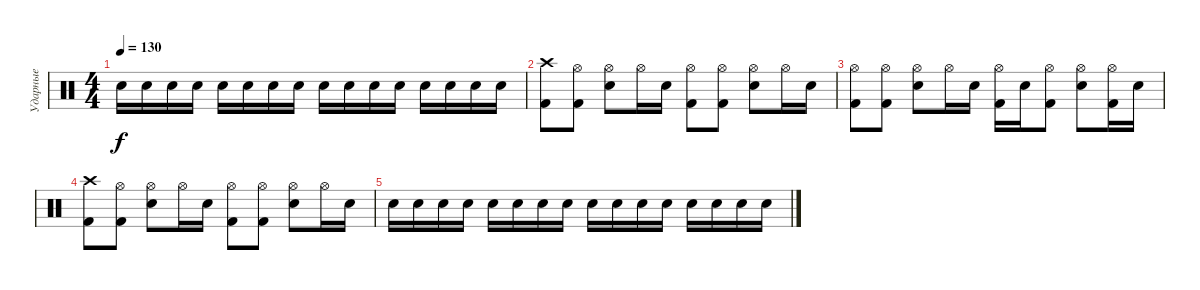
\track ("Ударные" "Ударные") {instrument percussion}
\staff {score}
\articulation defaults
\ts (4 4)
\tempo 130
\clef neutral
\ks c "Snare (hit) 2".16{dy f} "Snare (hit) 2".16 "Snare (hit) 2".16 "Snare (hit) 2".16 "Snare (hit) 2".16 "Snare (hit) 2".16 "Snare (hit) 2".16 "Snare (hit) 2".16 "Snare (hit) 2".16 "Snare (hit) 2".16 "Snare (hit) 2".16 "Snare (hit) 2".16 "Snare (hit) 2".16 "Snare (hit) 2".16 "Snare (hit) 2".16 "Snare (hit) 2".16
|
("Kick (hit) 2" "Crash high (hit)").8 ("Kick (hit) 2" "Hi-Hat (open)").8 ("Snare (hit) 2" "Hi-Hat (open)").8 "Hi-Hat (open)".16 "Snare (hit) 2".16 ("Kick (hit) 2" "Hi-Hat (open)").8 ("Kick (hit) 2" "Hi-Hat (open)").8 ("Snare (hit) 2" "Hi-Hat (open)").8 "Hi-Hat (open)".16 "Snare (hit) 2".16 |
("Kick (hit) 2" "Hi-Hat (open)").8 ("Kick (hit) 2" "Hi-Hat (open)").8 ("Snare (hit) 2" "Hi-Hat (open)").8 "Hi-Hat (open)".16 "Snare (hit) 2".16 ("Kick (hit) 2" "Hi-Hat (open)").16 "Snare (hit) 2".16 ("Kick (hit) 2" "Hi-Hat (open)").8 ("Snare (hit) 2" "Hi-Hat (open)").8 ("Kick (hit) 2" "Hi-Hat (open)").16 "Snare (hit) 2".16 |
("Kick (hit) 2" "Crash high (hit)").8 ("Kick (hit) 2" "Hi-Hat (open)").8 ("Snare (hit) 2" "Hi-Hat (open)").8 "Hi-Hat (open)".16 "Snare (hit) 2".16 ("Kick (hit) 2" "Hi-Hat (open)").8 ("Kick (hit) 2" "Hi-Hat (open)").8 ("Snare (hit) 2" "Hi-Hat (open)").8 "Hi-Hat (open)".16 "Snare (hit) 2".16 |
"Snare (hit) 2".16 "Snare (hit) 2".16 "Snare (hit) 2".16 "Snare (hit) 2".16 "Snare (hit) 2".16 "Snare (hit) 2".16 "Snare (hit) 2".16 "Snare (hit) 2".16 "Snare (hit) 2".16 "Snare (hit) 2".16 "Snare (hit) 2".16 "Snare (hit) 2".16 "Snare (hit) 2".16 "Snare (hit) 2".16 "Snare (hit) 2".16 "Snare (hit) 2".16
